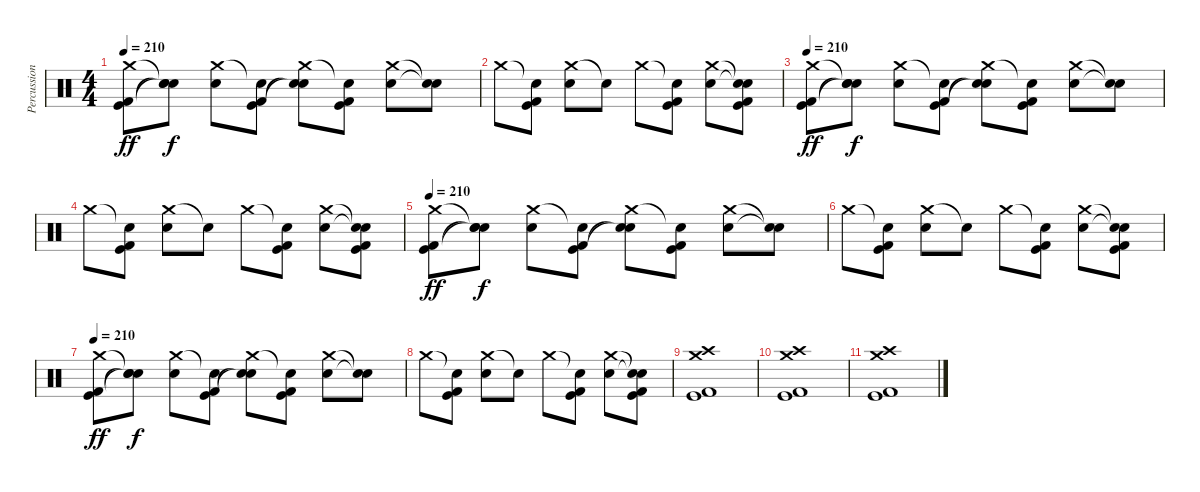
\track ("Percussion" "Percussion") {instrument percussion}
\staff {score}
\articulation defaults
\ts (4 4)
\tempo 210
\clef neutral
\ks c
("Crash medium (hit)" "Kick (hit)" "Kick (hit) 2").8{dy ff} ("Snare (hit)"{t} "Snare (hit)"{t} "Snare (hit)"{t}).8{dy f} ("Crash medium (hit)" "Electric Snare (hit)").8 ("Snare (hit)"{t} "Kick (hit)" "Kick (hit) 2").8 ("Crash medium (hit)" "Snare (hit)"{t} "Snare (hit)"{t}).8 ("Snare (hit)"{t} "Kick (hit)" "Kick (hit) 2").8 ("Crash medium (hit)" "Electric Snare (hit)").8 ("Snare (hit)"{t} "Snare (hit)"{t}).8 |
"Crash medium (hit)".8 ("Snare (hit)"{t} "Kick (hit)" "Kick (hit) 2").8 ("Crash medium (hit)" "Electric Snare (hit)").8 "Snare (hit)"{t}.8 "Crash medium (hit)".8 ("Snare (hit)"{t} "Kick (hit)" "Kick (hit) 2").8 ("Crash medium (hit)" "Electric Snare (hit)").8 ("Snare (hit)"{t} "Snare (hit)"{t} "Kick (hit)" "Kick (hit) 2").8 |
\tempo 210
("Crash medium (hit)" "Kick (hit)" "Kick (hit) 2").8{dy ff} ("Snare (hit)"{t} "Snare (hit)"{t} "Snare (hit)"{t}).8{dy f} ("Crash medium (hit)" "Electric Snare (hit)").8 ("Snare (hit)"{t} "Kick (hit)" "Kick (hit) 2").8 ("Crash medium (hit)" "Snare (hit)"{t} "Snare (hit)"{t}).8 ("Snare (hit)"{t} "Kick (hit)" "Kick (hit) 2").8 ("Crash medium (hit)" "Electric Snare (hit)").8 ("Snare (hit)"{t} "Snare (hit)"{t}).8 |
"Crash medium (hit)".8 ("Snare (hit)"{t} "Kick (hit)" "Kick (hit) 2").8 ("Crash medium (hit)" "Electric Snare (hit)").8 "Snare (hit)"{t}.8 "Crash medium (hit)".8 ("Snare (hit)"{t} "Kick (hit)" "Kick (hit) 2").8 ("Crash medium (hit)" "Electric Snare (hit)").8 ("Snare (hit)"{t} "Snare (hit)"{t} "Kick (hit)" "Kick (hit) 2").8 |
\tempo 210
("Crash medium (hit)" "Kick (hit)" "Kick (hit) 2").8{dy ff} ("Snare (hit)"{t} "Snare (hit)"{t} "Snare (hit)"{t}).8{dy f} ("Crash medium (hit)" "Electric Snare (hit)").8 ("Snare (hit)"{t} "Kick (hit)" "Kick (hit) 2").8 ("Crash medium (hit)" "Snare (hit)"{t} "Snare (hit)"{t}).8 ("Snare (hit)"{t} "Kick (hit)" "Kick (hit) 2").8 ("Crash medium (hit)" "Electric Snare (hit)").8 ("Snare (hit)"{t} "Snare (hit)"{t}).8 |
"Crash medium (hit)".8 ("Snare (hit)"{t} "Kick (hit)" "Kick (hit) 2").8 ("Crash medium (hit)" "Electric Snare (hit)").8 "Snare (hit)"{t}.8 "Crash medium (hit)".8 ("Snare (hit)"{t} "Kick (hit)" "Kick (hit) 2").8 ("Crash medium (hit)" "Electric Snare (hit)").8 ("Snare (hit)"{t} "Snare (hit)"{t} "Kick (hit)" "Kick (hit) 2").8 |
\tempo 210
("Crash medium (hit)" "Kick (hit)" "Kick (hit) 2").8{dy ff} ("Snare (hit)"{t} "Snare (hit)"{t} "Snare (hit)"{t}).8{dy f} ("Crash medium (hit)" "Electric Snare (hit)").8 ("Snare (hit)"{t} "Kick (hit)" "Kick (hit) 2").8 ("Crash medium (hit)" "Snare (hit)"{t} "Snare (hit)"{t}).8 ("Snare (hit)"{t} "Kick (hit)" "Kick (hit) 2").8 ("Crash medium (hit)" "Electric Snare (hit)").8 ("Snare (hit)"{t} "Snare (hit)"{t}).8 |
"Crash medium (hit)".8 ("Snare (hit)"{t} "Kick (hit)" "Kick (hit) 2").8 ("Crash medium (hit)" "Electric Snare (hit)").8 "Snare (hit)"{t}.8 "Crash medium (hit)".8 ("Snare (hit)"{t} "Kick (hit)" "Kick (hit) 2").8 ("Crash medium (hit)" "Electric Snare (hit)").8 ("Snare (hit)"{t} "Snare (hit)"{t} "Kick (hit)" "Kick (hit) 2").8 |
("Crash medium (hit)" "Crash high (hit)" "Kick (hit)" "Kick (hit) 2").1 |
("Crash medium (hit)" "Crash high (hit)" "Kick (hit)" "Kick (hit) 2").1 |
("Crash medium (hit)" "Crash high (hit)" "Kick (hit)" "Kick (hit) 2").1
